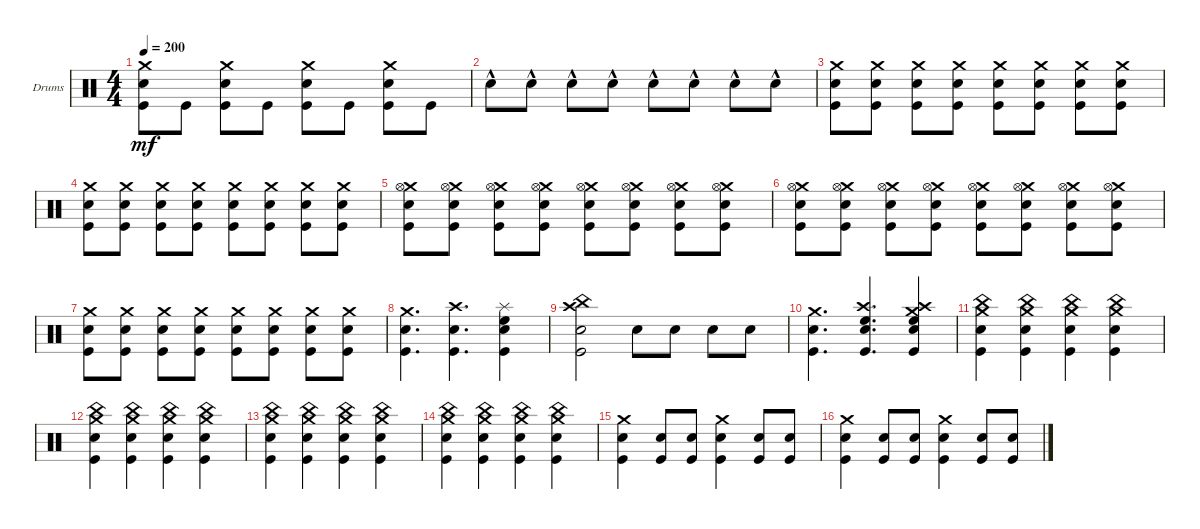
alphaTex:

\bracketExtendMode groupsimilarinstruments
\firstSystemTrackNameOrientation horizontal
\otherSystemsTrackNameOrientation horizontal
\track ("Drumkit" "Drums") {instrument percussion}
\staff {score}
\articulation defaults
\ts (4 4)
\tempo 200
\clef neutral
\ks c
("Kick (hit)" "Snare (hit) 2" "Crash medium (hit)").8{dy mf} "Kick (hit)".8 ("Kick (hit)" "Snare (hit) 2" "Crash medium (hit)").8 "Kick (hit)".8 ("Kick (hit)" "Snare (hit) 2" "Crash medium (hit)").8 "Kick (hit)".8 ("Kick (hit)" "Snare (hit) 2" "Crash medium (hit)").8 "Kick (hit)".8 |
"Snare (hit) 2"{hac}.8 "Snare (hit) 2"{hac}.8 "Snare (hit) 2"{hac}.8 "Snare (hit) 2"{hac}.8 "Snare (hit) 2"{hac}.8 "Snare (hit) 2"{hac}.8 "Snare (hit) 2"{hac}.8 "Snare (hit) 2"{hac}.8 |
("Kick (hit)" "Snare (hit) 2" "Crash medium (hit)").8 ("Kick (hit)" "Snare (hit) 2" "Crash medium (hit)").8 ("Kick (hit)" "Snare (hit) 2" "Crash medium (hit)").8 ("Kick (hit)" "Snare (hit) 2" "Crash medium (hit)").8 ("Kick (hit)" "Snare (hit) 2" "Crash medium (hit)").8 ("Kick (hit)" "Snare (hit) 2" "Crash medium (hit)").8 ("Kick (hit)" "Snare (hit) 2" "Crash medium (hit)").8 ("Kick (hit)" "Snare (hit) 2" "Crash medium (hit)").8 |
("Kick (hit)" "Snare (hit) 2" "Crash medium (hit)").8 ("Kick (hit)" "Snare (hit) 2" "Crash medium (hit)").8 ("Kick (hit)" "Snare (hit) 2" "Crash medium (hit)").8 ("Kick (hit)" "Snare (hit) 2" "Crash medium (hit)").8 ("Kick (hit)" "Snare (hit) 2" "Crash medium (hit)").8 ("Kick (hit)" "Snare (hit) 2" "Crash medium (hit)").8 ("Kick (hit)" "Snare (hit) 2" "Crash medium (hit)").8 ("Kick (hit)" "Snare (hit) 2" "Crash medium (hit)").8 |
("Kick (hit)" "Snare (hit) 2" "Crash medium (hit)" "Hi-Hat (open)").8 ("Kick (hit)" "Snare (hit) 2" "Crash medium (hit)" "Hi-Hat (open)").8 ("Kick (hit)" "Snare (hit) 2" "Crash medium (hit)" "Hi-Hat (open)").8 ("Kick (hit)" "Snare (hit) 2" "Crash medium (hit)" "Hi-Hat (open)").8 ("Kick (hit)" "Snare (hit) 2" "Crash medium (hit)" "Hi-Hat (open)").8 ("Kick (hit)" "Snare (hit) 2" "Crash medium (hit)" "Hi-Hat (open)").8 ("Kick (hit)" "Snare (hit) 2" "Crash medium (hit)" "Hi-Hat (open)").8 ("Kick (hit)" "Snare (hit) 2" "Crash medium (hit)" "Hi-Hat (open)").8 |
("Kick (hit)" "Snare (hit) 2" "Crash medium (hit)" "Hi-Hat (open)").8 ("Kick (hit)" "Snare (hit) 2" "Crash medium (hit)" "Hi-Hat (open)").8 ("Kick (hit)" "Snare (hit) 2" "Crash medium (hit)" "Hi-Hat (open)").8 ("Kick (hit)" "Snare (hit) 2" "Crash medium (hit)" "Hi-Hat (open)").8 ("Kick (hit)" "Snare (hit) 2" "Crash medium (hit)" "Hi-Hat (open)").8 ("Kick (hit)" "Snare (hit) 2" "Crash medium (hit)" "Hi-Hat (open)").8 ("Kick (hit)" "Snare (hit) 2" "Crash medium (hit)" "Hi-Hat (open)").8 ("Kick (hit)" "Snare (hit) 2" "Crash medium (hit)" "Hi-Hat (open)").8 |
("Kick (hit)" "Snare (hit) 2" "Crash medium (hit)").8 ("Kick (hit)" "Snare (hit) 2" "Crash medium (hit)").8 ("Kick (hit)" "Snare (hit) 2" "Crash medium (hit)").8 ("Kick (hit)" "Snare (hit) 2" "Crash medium (hit)").8 ("Kick (hit)" "Snare (hit) 2" "Crash medium (hit)").8 ("Kick (hit)" "Snare (hit) 2" "Crash medium (hit)").8 ("Kick (hit)" "Snare (hit) 2" "Crash medium (hit)").8 ("Kick (hit)" "Snare (hit) 2" "Crash medium (hit)").8 |
("Kick (hit)" "Snare (hit) 2" "Crash medium (hit)").4{d} ("Kick (hit)" "Snare (hit) 2" "Crash high (hit)").4{d} ("Kick (hit)" "Snare (hit) 2" "High Floor Tom (hit)" "Splash (hit)").4 |
("Kick (hit)" "Snare (hit) 2" "China (hit)" "Crash high (hit)").2 "Snare (hit) 2".8 "Snare (hit) 2".8 "Snare (hit) 2".8 "Snare (hit) 2".8 |
("Kick (hit)" "Snare (hit) 2" "Crash medium (hit)").4{d} ("Kick (hit)" "Snare (hit) 2" "High Floor Tom (hit)" "Crash high (hit)").4{d} ("Kick (hit)" "Snare (hit) 2" "High Floor Tom (hit)" "Crash medium (hit)" "Crash high (hit)").4 |
("China (hit)" "Snare (hit) 2" "Kick (hit)" "Crash medium (hit)").4 ("China (hit)" "Snare (hit) 2" "Kick (hit)" "Crash medium (hit)").4 ("China (hit)" "Snare (hit) 2" "Kick (hit)" "Crash medium (hit)").4 ("China (hit)" "Snare (hit) 2" "Kick (hit)" "Crash medium (hit)").4 |
("China (hit)" "Snare (hit) 2" "Kick (hit)" "Crash medium (hit)").4 ("China (hit)" "Snare (hit) 2" "Kick (hit)" "Crash medium (hit)").4 ("China (hit)" "Snare (hit) 2" "Kick (hit)" "Crash medium (hit)").4 ("China (hit)" "Snare (hit) 2" "Kick (hit)" "Crash medium (hit)").4 |
("China (hit)" "Snare (hit) 2" "Kick (hit)" "Crash medium (hit)").4 ("China (hit)" "Snare (hit) 2" "Kick (hit)" "Crash medium (hit)").4 ("China (hit)" "Snare (hit) 2" "Kick (hit)" "Crash medium (hit)").4 ("China (hit)" "Snare (hit) 2" "Kick (hit)" "Crash medium (hit)").4 |
("China (hit)" "Snare (hit) 2" "Kick (hit)" "Crash medium (hit)").4 ("China (hit)" "Snare (hit) 2" "Kick (hit)" "Crash medium (hit)").4 ("China (hit)" "Snare (hit) 2" "Kick (hit)" "Crash medium (hit)").4 ("China (hit)" "Snare (hit) 2" "Kick (hit)" "Crash medium (hit)").4 |
("Kick (hit)" "Snare (hit) 2" "Crash medium (hit)").4 ("Kick (hit)" "Snare (hit) 2").8 ("Kick (hit)" "Snare (hit) 2").8 ("Kick (hit)" "Snare (hit) 2" "Crash medium (hit)").4 ("Kick (hit)" "Snare (hit) 2").8 ("Kick (hit)" "Snare (hit) 2").8 |
("Kick (hit)" "Snare (hit) 2" "Crash medium (hit)").4 ("Kick (hit)" "Snare (hit) 2").8 ("Kick (hit)" "Snare (hit) 2").8 ("Kick (hit)" "Snare (hit) 2" "Crash medium (hit)").4 ("Kick (hit)" "Snare (hit) 2").8 ("Kick (hit)" "Snare (hit) 2").8
